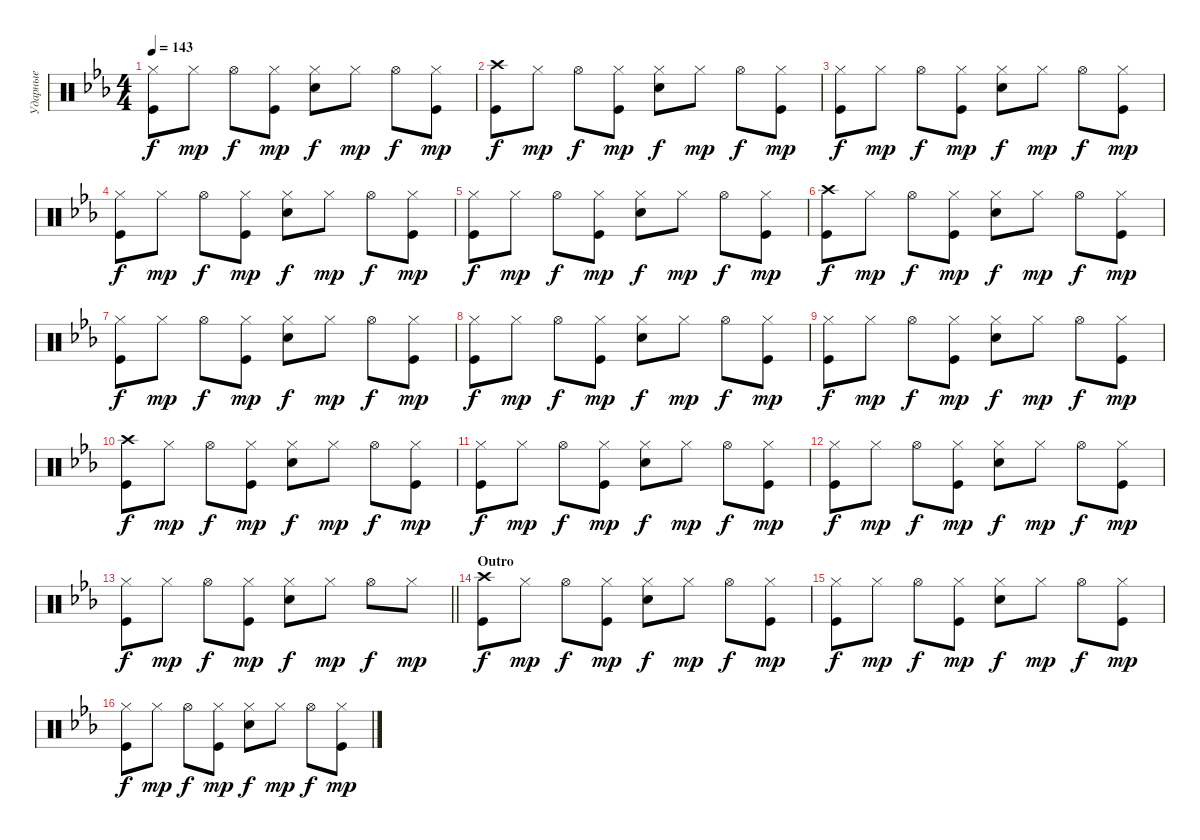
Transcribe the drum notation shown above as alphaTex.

\track ("Ударные" "Ударные") {instrument percussion}
\staff {score}
\articulation defaults
\ts (4 4)
\tempo 143
\clef neutral
\ks cminor
("Kick (hit)" "Hi-Hat (closed)").8{dy f} "Hi-Hat (closed)".8{dy mp} "Hi-Hat (open)".8{dy f} ("Kick (hit)" "Hi-Hat (closed)").8{dy mp} ("Snare (hit) 2" "Hi-Hat (closed)").8{dy f} "Hi-Hat (closed)".8{dy mp} "Hi-Hat (open)".8{dy f} ("Kick (hit)" "Hi-Hat (closed)").8{dy mp} |
("Kick (hit)" "Crash high (hit)").8{dy f} "Hi-Hat (closed)".8{dy mp} "Hi-Hat (open)".8{dy f} ("Kick (hit)" "Hi-Hat (closed)").8{dy mp} ("Snare (hit) 2" "Hi-Hat (closed)").8{dy f} "Hi-Hat (closed)".8{dy mp} "Hi-Hat (open)".8{dy f} ("Kick (hit)" "Hi-Hat (closed)").8{dy mp} |
("Kick (hit)" "Hi-Hat (closed)").8{dy f} "Hi-Hat (closed)".8{dy mp} "Hi-Hat (open)".8{dy f} ("Kick (hit)" "Hi-Hat (closed)").8{dy mp} ("Snare (hit) 2" "Hi-Hat (closed)").8{dy f} "Hi-Hat (closed)".8{dy mp} "Hi-Hat (open)".8{dy f} ("Kick (hit)" "Hi-Hat (closed)").8{dy mp} |
("Kick (hit)" "Hi-Hat (closed)").8{dy f} "Hi-Hat (closed)".8{dy mp} "Hi-Hat (open)".8{dy f} ("Kick (hit)" "Hi-Hat (closed)").8{dy mp} ("Snare (hit) 2" "Hi-Hat (closed)").8{dy f} "Hi-Hat (closed)".8{dy mp} "Hi-Hat (open)".8{dy f} ("Kick (hit)" "Hi-Hat (closed)").8{dy mp} |
("Kick (hit)" "Hi-Hat (closed)").8{dy f} "Hi-Hat (closed)".8{dy mp} "Hi-Hat (open)".8{dy f} ("Kick (hit)" "Hi-Hat (closed)").8{dy mp} ("Snare (hit) 2" "Hi-Hat (closed)").8{dy f} "Hi-Hat (closed)".8{dy mp} "Hi-Hat (open)".8{dy f} ("Kick (hit)" "Hi-Hat (closed)").8{dy mp} |
("Kick (hit)" "Crash high (hit)").8{dy f} "Hi-Hat (closed)".8{dy mp} "Hi-Hat (open)".8{dy f} ("Kick (hit)" "Hi-Hat (closed)").8{dy mp} ("Snare (hit) 2" "Hi-Hat (closed)").8{dy f} "Hi-Hat (closed)".8{dy mp} "Hi-Hat (open)".8{dy f} ("Kick (hit)" "Hi-Hat (closed)").8{dy mp} |
("Kick (hit)" "Hi-Hat (closed)").8{dy f} "Hi-Hat (closed)".8{dy mp} "Hi-Hat (open)".8{dy f} ("Kick (hit)" "Hi-Hat (closed)").8{dy mp} ("Snare (hit) 2" "Hi-Hat (closed)").8{dy f} "Hi-Hat (closed)".8{dy mp} "Hi-Hat (open)".8{dy f} ("Kick (hit)" "Hi-Hat (closed)").8{dy mp} |
("Kick (hit)" "Hi-Hat (closed)").8{dy f} "Hi-Hat (closed)".8{dy mp} "Hi-Hat (open)".8{dy f} ("Kick (hit)" "Hi-Hat (closed)").8{dy mp} ("Snare (hit) 2" "Hi-Hat (closed)").8{dy f} "Hi-Hat (closed)".8{dy mp} "Hi-Hat (open)".8{dy f} ("Kick (hit)" "Hi-Hat (closed)").8{dy mp} |
("Kick (hit)" "Hi-Hat (closed)").8{dy f} "Hi-Hat (closed)".8{dy mp} "Hi-Hat (open)".8{dy f} ("Kick (hit)" "Hi-Hat (closed)").8{dy mp} ("Snare (hit) 2" "Hi-Hat (closed)").8{dy f} "Hi-Hat (closed)".8{dy mp} "Hi-Hat (open)".8{dy f} ("Kick (hit)" "Hi-Hat (closed)").8{dy mp} |
("Kick (hit)" "Crash high (hit)").8{dy f} "Hi-Hat (closed)".8{dy mp} "Hi-Hat (open)".8{dy f} ("Kick (hit)" "Hi-Hat (closed)").8{dy mp} ("Snare (hit) 2" "Hi-Hat (closed)").8{dy f} "Hi-Hat (closed)".8{dy mp} "Hi-Hat (open)".8{dy f} ("Kick (hit)" "Hi-Hat (closed)").8{dy mp} |
("Kick (hit)" "Hi-Hat (closed)").8{dy f} "Hi-Hat (closed)".8{dy mp} "Hi-Hat (open)".8{dy f} ("Kick (hit)" "Hi-Hat (closed)").8{dy mp} ("Snare (hit) 2" "Hi-Hat (closed)").8{dy f} "Hi-Hat (closed)".8{dy mp} "Hi-Hat (open)".8{dy f} ("Kick (hit)" "Hi-Hat (closed)").8{dy mp} |
("Kick (hit)" "Hi-Hat (closed)").8{dy f} "Hi-Hat (closed)".8{dy mp} "Hi-Hat (open)".8{dy f} ("Kick (hit)" "Hi-Hat (closed)").8{dy mp} ("Snare (hit) 2" "Hi-Hat (closed)").8{dy f} "Hi-Hat (closed)".8{dy mp} "Hi-Hat (open)".8{dy f} ("Kick (hit)" "Hi-Hat (closed)").8{dy mp} |
\barLineRight lightlight
("Kick (hit)" "Hi-Hat (closed)").8{dy f} "Hi-Hat (closed)".8{dy mp} "Hi-Hat (open)".8{dy f} ("Kick (hit)" "Hi-Hat (closed)").8{dy mp} ("Snare (hit) 2" "Hi-Hat (closed)").8{dy f} "Hi-Hat (closed)".8{dy mp} "Hi-Hat (open)".8{dy f} "Hi-Hat (closed)".8{dy mp} |
\section ("" "Outro")
("Kick (hit)" "Crash high (hit)").8{dy f} "Hi-Hat (closed)".8{dy mp} "Hi-Hat (open)".8{dy f} ("Kick (hit)" "Hi-Hat (closed)").8{dy mp} ("Snare (hit) 2" "Hi-Hat (closed)").8{dy f} "Hi-Hat (closed)".8{dy mp} "Hi-Hat (open)".8{dy f} ("Kick (hit)" "Hi-Hat (closed)").8{dy mp} |
("Kick (hit)" "Hi-Hat (closed)").8{dy f} "Hi-Hat (closed)".8{dy mp} "Hi-Hat (open)".8{dy f} ("Kick (hit)" "Hi-Hat (closed)").8{dy mp} ("Snare (hit) 2" "Hi-Hat (closed)").8{dy f} "Hi-Hat (closed)".8{dy mp} "Hi-Hat (open)".8{dy f} ("Kick (hit)" "Hi-Hat (closed)").8{dy mp} |
("Kick (hit)" "Hi-Hat (closed)").8{dy f} "Hi-Hat (closed)".8{dy mp} "Hi-Hat (open)".8{dy f} ("Kick (hit)" "Hi-Hat (closed)").8{dy mp} ("Snare (hit) 2" "Hi-Hat (closed)").8{dy f} "Hi-Hat (closed)".8{dy mp} "Hi-Hat (open)".8{dy f} ("Kick (hit)" "Hi-Hat (closed)").8{dy mp}
